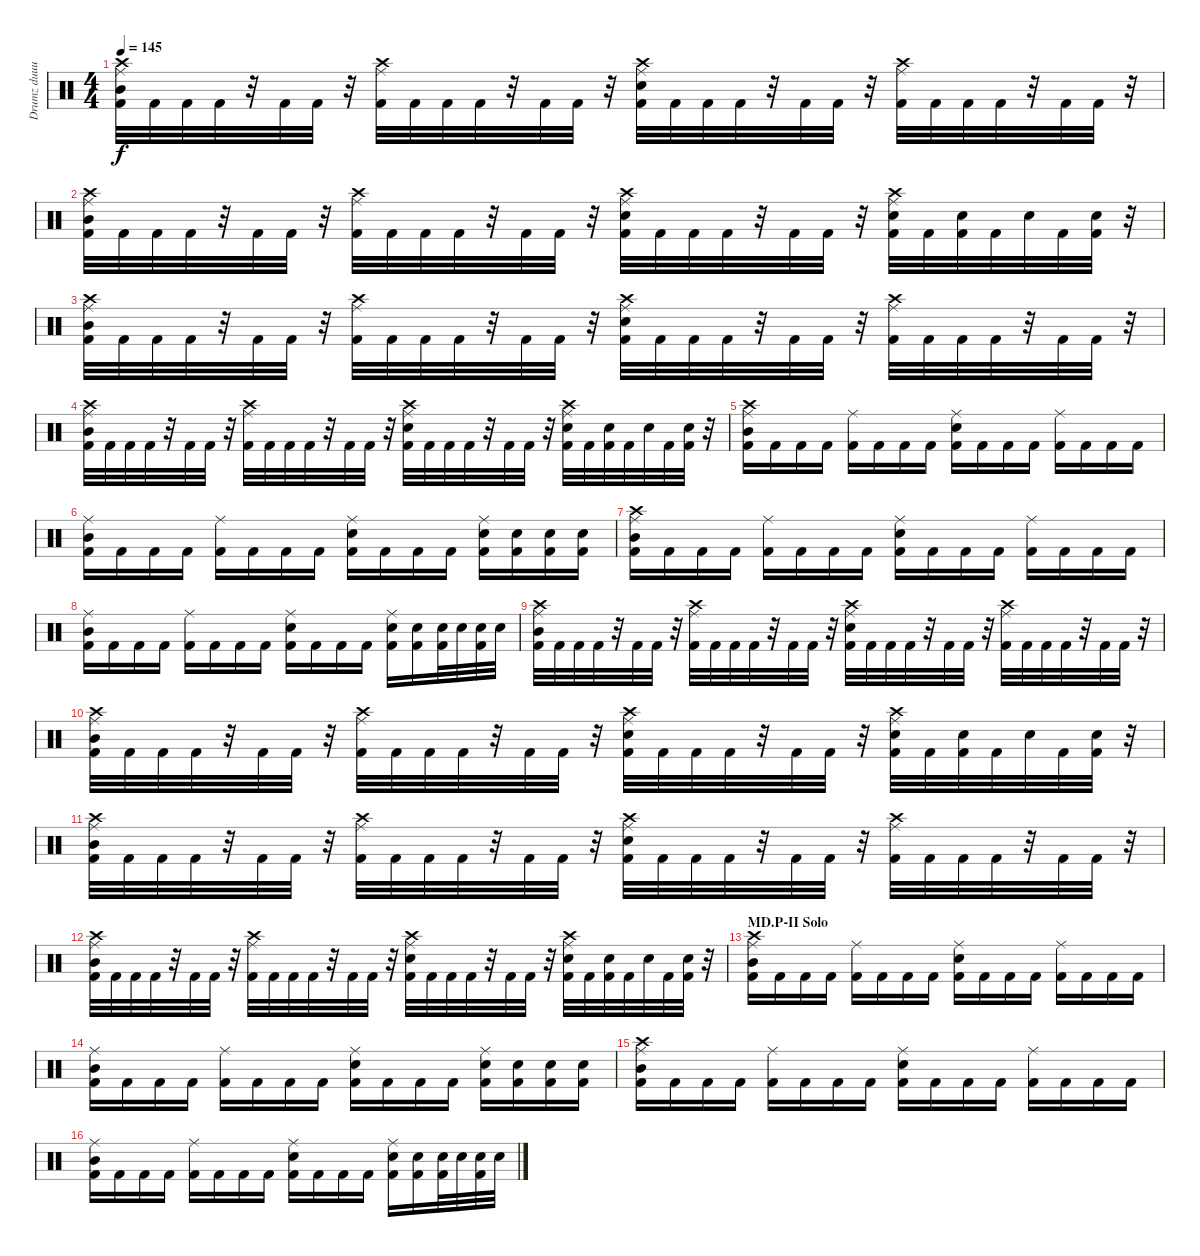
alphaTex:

\track ("Drumz duuuuude" "Drumz duuu") {instrument percussion}
\staff {score}
\articulation defaults
\ts (4 4)
\tempo 145
\clef neutral
\ks c
("Crash high (hit)" "Ride (middle)" "Kick (hit) 2" "Mid Tom (hit)").32{dy f} "Kick (hit) 2".32 "Kick (hit) 2".32 "Kick (hit) 2".32 r.32 "Kick (hit) 2".32 "Kick (hit) 2".32 r.32 ("Crash high (hit)" "Ride (middle)" "Kick (hit) 2").32 "Kick (hit) 2".32 "Kick (hit) 2".32 "Kick (hit) 2".32 r.32 "Kick (hit) 2".32 "Kick (hit) 2".32 r.32 ("Crash high (hit)" "Ride (middle)" "Kick (hit) 2" "Electric Snare (hit)").32 "Kick (hit) 2".32 "Kick (hit) 2".32 "Kick (hit) 2".32 r.32 "Kick (hit) 2".32 "Kick (hit) 2".32 r.32 ("Crash high (hit)" "Ride (middle)" "Kick (hit) 2").32 "Kick (hit) 2".32 "Kick (hit) 2".32 "Kick (hit) 2".32 r.32 "Kick (hit) 2".32 "Kick (hit) 2".32 r.32 |
("Crash high (hit)" "Ride (middle)" "Kick (hit) 2" "Mid Tom (hit)").32 "Kick (hit) 2".32 "Kick (hit) 2".32 "Kick (hit) 2".32 r.32 "Kick (hit) 2".32 "Kick (hit) 2".32 r.32 ("Crash high (hit)" "Ride (middle)" "Kick (hit) 2").32 "Kick (hit) 2".32 "Kick (hit) 2".32 "Kick (hit) 2".32 r.32 "Kick (hit) 2".32 "Kick (hit) 2".32 r.32 ("Crash high (hit)" "Ride (middle)" "Kick (hit) 2" "Electric Snare (hit)").32 "Kick (hit) 2".32 "Kick (hit) 2".32 "Kick (hit) 2".32 r.32 "Kick (hit) 2".32 "Kick (hit) 2".32 r.32 ("Crash high (hit)" "Ride (middle)" "Kick (hit) 2" "Electric Snare (hit)").32 "Kick (hit) 2".32 ("Kick (hit) 2" "Electric Snare (hit)").32 "Kick (hit) 2".32 "Electric Snare (hit)".32 "Kick (hit) 2".32 ("Kick (hit) 2" "Electric Snare (hit)").32 r.32 |
("Crash high (hit)" "Ride (middle)" "Kick (hit) 2" "Mid Tom (hit)").32 "Kick (hit) 2".32 "Kick (hit) 2".32 "Kick (hit) 2".32 r.32 "Kick (hit) 2".32 "Kick (hit) 2".32 r.32 ("Crash high (hit)" "Ride (middle)" "Kick (hit) 2").32 "Kick (hit) 2".32 "Kick (hit) 2".32 "Kick (hit) 2".32 r.32 "Kick (hit) 2".32 "Kick (hit) 2".32 r.32 ("Crash high (hit)" "Ride (middle)" "Kick (hit) 2" "Electric Snare (hit)").32 "Kick (hit) 2".32 "Kick (hit) 2".32 "Kick (hit) 2".32 r.32 "Kick (hit) 2".32 "Kick (hit) 2".32 r.32 ("Crash high (hit)" "Ride (middle)" "Kick (hit) 2").32 "Kick (hit) 2".32 "Kick (hit) 2".32 "Kick (hit) 2".32 r.32 "Kick (hit) 2".32 "Kick (hit) 2".32 r.32 |
("Crash high (hit)" "Ride (middle)" "Kick (hit) 2" "Mid Tom (hit)").32 "Kick (hit) 2".32 "Kick (hit) 2".32 "Kick (hit) 2".32 r.32 "Kick (hit) 2".32 "Kick (hit) 2".32 r.32 ("Crash high (hit)" "Ride (middle)" "Kick (hit) 2").32 "Kick (hit) 2".32 "Kick (hit) 2".32 "Kick (hit) 2".32 r.32 "Kick (hit) 2".32 "Kick (hit) 2".32 r.32 ("Crash high (hit)" "Ride (middle)" "Kick (hit) 2" "Electric Snare (hit)").32 "Kick (hit) 2".32 "Kick (hit) 2".32 "Kick (hit) 2".32 r.32 "Kick (hit) 2".32 "Kick (hit) 2".32 r.32 ("Crash high (hit)" "Ride (middle)" "Kick (hit) 2" "Electric Snare (hit)").32 "Kick (hit) 2".32 ("Kick (hit) 2" "Electric Snare (hit)").32 "Kick (hit) 2".32 "Electric Snare (hit)".32 "Kick (hit) 2".32 ("Kick (hit) 2" "Electric Snare (hit)").32 r.32 |
("Crash high (hit)" "Ride (middle)" "Kick (hit) 2" "Mid Tom (hit)").16 "Kick (hit) 2".16 "Kick (hit) 2".16 "Kick (hit) 2".16 ("Ride (middle)" "Kick (hit) 2").16 "Kick (hit) 2".16 "Kick (hit) 2".16 "Kick (hit) 2".16 ("Ride (middle)" "Kick (hit) 2" "Electric Snare (hit)").16 "Kick (hit) 2".16 "Kick (hit) 2".16 "Kick (hit) 2".16 ("Ride (middle)" "Kick (hit) 2").16 "Kick (hit) 2".16 "Kick (hit) 2".16 "Kick (hit) 2".16 |
("Ride (middle)" "Kick (hit) 2" "Mid Tom (hit)").16 "Kick (hit) 2".16 "Kick (hit) 2".16 "Kick (hit) 2".16 ("Ride (middle)" "Kick (hit) 2").16 "Kick (hit) 2".16 "Kick (hit) 2".16 "Kick (hit) 2".16 ("Ride (middle)" "Kick (hit) 2" "Electric Snare (hit)").16 "Kick (hit) 2".16 "Kick (hit) 2".16 "Kick (hit) 2".16 ("Ride (middle)" "Kick (hit) 2" "Electric Snare (hit)").16 ("Kick (hit) 2" "Electric Snare (hit)").16 ("Kick (hit) 2" "Electric Snare (hit)").16 ("Kick (hit) 2" "Electric Snare (hit)").16 |
("Crash high (hit)" "Ride (middle)" "Kick (hit) 2" "Mid Tom (hit)").16 "Kick (hit) 2".16 "Kick (hit) 2".16 "Kick (hit) 2".16 ("Ride (middle)" "Kick (hit) 2").16 "Kick (hit) 2".16 "Kick (hit) 2".16 "Kick (hit) 2".16 ("Ride (middle)" "Kick (hit) 2" "Electric Snare (hit)").16 "Kick (hit) 2".16 "Kick (hit) 2".16 "Kick (hit) 2".16 ("Ride (middle)" "Kick (hit) 2").16 "Kick (hit) 2".16 "Kick (hit) 2".16 "Kick (hit) 2".16 |
("Ride (middle)" "Kick (hit) 2" "Mid Tom (hit)").16 "Kick (hit) 2".16 "Kick (hit) 2".16 "Kick (hit) 2".16 ("Ride (middle)" "Kick (hit) 2").16 "Kick (hit) 2".16 "Kick (hit) 2".16 "Kick (hit) 2".16 ("Ride (middle)" "Kick (hit) 2" "Electric Snare (hit)").16 "Kick (hit) 2".16 "Kick (hit) 2".16 "Kick (hit) 2".16 ("Ride (middle)" "Kick (hit) 2" "Electric Snare (hit)").16 ("Kick (hit) 2" "Electric Snare (hit)").16 ("Kick (hit) 2" "Electric Snare (hit)").32 "Electric Snare (hit)".32 ("Kick (hit) 2" "Electric Snare (hit)").32 "Electric Snare (hit)".32 |
("Crash high (hit)" "Ride (middle)" "Kick (hit) 2" "Mid Tom (hit)").32 "Kick (hit) 2".32 "Kick (hit) 2".32 "Kick (hit) 2".32 r.32 "Kick (hit) 2".32 "Kick (hit) 2".32 r.32 ("Crash high (hit)" "Ride (middle)" "Kick (hit) 2").32 "Kick (hit) 2".32 "Kick (hit) 2".32 "Kick (hit) 2".32 r.32 "Kick (hit) 2".32 "Kick (hit) 2".32 r.32 ("Crash high (hit)" "Ride (middle)" "Kick (hit) 2" "Electric Snare (hit)").32 "Kick (hit) 2".32 "Kick (hit) 2".32 "Kick (hit) 2".32 r.32 "Kick (hit) 2".32 "Kick (hit) 2".32 r.32 ("Crash high (hit)" "Ride (middle)" "Kick (hit) 2").32 "Kick (hit) 2".32 "Kick (hit) 2".32 "Kick (hit) 2".32 r.32 "Kick (hit) 2".32 "Kick (hit) 2".32 r.32 |
("Crash high (hit)" "Ride (middle)" "Kick (hit) 2" "Mid Tom (hit)").32 "Kick (hit) 2".32 "Kick (hit) 2".32 "Kick (hit) 2".32 r.32 "Kick (hit) 2".32 "Kick (hit) 2".32 r.32 ("Crash high (hit)" "Ride (middle)" "Kick (hit) 2").32 "Kick (hit) 2".32 "Kick (hit) 2".32 "Kick (hit) 2".32 r.32 "Kick (hit) 2".32 "Kick (hit) 2".32 r.32 ("Crash high (hit)" "Ride (middle)" "Kick (hit) 2" "Electric Snare (hit)").32 "Kick (hit) 2".32 "Kick (hit) 2".32 "Kick (hit) 2".32 r.32 "Kick (hit) 2".32 "Kick (hit) 2".32 r.32 ("Crash high (hit)" "Ride (middle)" "Kick (hit) 2" "Electric Snare (hit)").32 "Kick (hit) 2".32 ("Kick (hit) 2" "Electric Snare (hit)").32 "Kick (hit) 2".32 "Electric Snare (hit)".32 "Kick (hit) 2".32 ("Kick (hit) 2" "Electric Snare (hit)").32 r.32 |
("Crash high (hit)" "Ride (middle)" "Kick (hit) 2" "Mid Tom (hit)").32 "Kick (hit) 2".32 "Kick (hit) 2".32 "Kick (hit) 2".32 r.32 "Kick (hit) 2".32 "Kick (hit) 2".32 r.32 ("Crash high (hit)" "Ride (middle)" "Kick (hit) 2").32 "Kick (hit) 2".32 "Kick (hit) 2".32 "Kick (hit) 2".32 r.32 "Kick (hit) 2".32 "Kick (hit) 2".32 r.32 ("Crash high (hit)" "Ride (middle)" "Kick (hit) 2" "Electric Snare (hit)").32 "Kick (hit) 2".32 "Kick (hit) 2".32 "Kick (hit) 2".32 r.32 "Kick (hit) 2".32 "Kick (hit) 2".32 r.32 ("Crash high (hit)" "Ride (middle)" "Kick (hit) 2").32 "Kick (hit) 2".32 "Kick (hit) 2".32 "Kick (hit) 2".32 r.32 "Kick (hit) 2".32 "Kick (hit) 2".32 r.32 |
("Crash high (hit)" "Ride (middle)" "Kick (hit) 2" "Mid Tom (hit)").32 "Kick (hit) 2".32 "Kick (hit) 2".32 "Kick (hit) 2".32 r.32 "Kick (hit) 2".32 "Kick (hit) 2".32 r.32 ("Crash high (hit)" "Ride (middle)" "Kick (hit) 2").32 "Kick (hit) 2".32 "Kick (hit) 2".32 "Kick (hit) 2".32 r.32 "Kick (hit) 2".32 "Kick (hit) 2".32 r.32 ("Crash high (hit)" "Ride (middle)" "Kick (hit) 2" "Electric Snare (hit)").32 "Kick (hit) 2".32 "Kick (hit) 2".32 "Kick (hit) 2".32 r.32 "Kick (hit) 2".32 "Kick (hit) 2".32 r.32 ("Crash high (hit)" "Ride (middle)" "Kick (hit) 2" "Electric Snare (hit)").32 "Kick (hit) 2".32 ("Kick (hit) 2" "Electric Snare (hit)").32 "Kick (hit) 2".32 "Electric Snare (hit)".32 "Kick (hit) 2".32 ("Kick (hit) 2" "Electric Snare (hit)").32 r.32 |
\section ("" "MD.P-II Solo")
("Crash high (hit)" "Ride (middle)" "Kick (hit) 2" "Mid Tom (hit)").16 "Kick (hit) 2".16 "Kick (hit) 2".16 "Kick (hit) 2".16 ("Ride (middle)" "Kick (hit) 2").16 "Kick (hit) 2".16 "Kick (hit) 2".16 "Kick (hit) 2".16 ("Ride (middle)" "Kick (hit) 2" "Electric Snare (hit)").16 "Kick (hit) 2".16 "Kick (hit) 2".16 "Kick (hit) 2".16 ("Ride (middle)" "Kick (hit) 2").16 "Kick (hit) 2".16 "Kick (hit) 2".16 "Kick (hit) 2".16 |
("Ride (middle)" "Kick (hit) 2" "Mid Tom (hit)").16 "Kick (hit) 2".16 "Kick (hit) 2".16 "Kick (hit) 2".16 ("Ride (middle)" "Kick (hit) 2").16 "Kick (hit) 2".16 "Kick (hit) 2".16 "Kick (hit) 2".16 ("Ride (middle)" "Kick (hit) 2" "Electric Snare (hit)").16 "Kick (hit) 2".16 "Kick (hit) 2".16 "Kick (hit) 2".16 ("Ride (middle)" "Kick (hit) 2" "Electric Snare (hit)").16 ("Kick (hit) 2" "Electric Snare (hit)").16 ("Kick (hit) 2" "Electric Snare (hit)").16 ("Kick (hit) 2" "Electric Snare (hit)").16 |
("Crash high (hit)" "Ride (middle)" "Kick (hit) 2" "Mid Tom (hit)").16 "Kick (hit) 2".16 "Kick (hit) 2".16 "Kick (hit) 2".16 ("Ride (middle)" "Kick (hit) 2").16 "Kick (hit) 2".16 "Kick (hit) 2".16 "Kick (hit) 2".16 ("Ride (middle)" "Kick (hit) 2" "Electric Snare (hit)").16 "Kick (hit) 2".16 "Kick (hit) 2".16 "Kick (hit) 2".16 ("Ride (middle)" "Kick (hit) 2").16 "Kick (hit) 2".16 "Kick (hit) 2".16 "Kick (hit) 2".16 |
("Ride (middle)" "Kick (hit) 2" "Mid Tom (hit)").16 "Kick (hit) 2".16 "Kick (hit) 2".16 "Kick (hit) 2".16 ("Ride (middle)" "Kick (hit) 2").16 "Kick (hit) 2".16 "Kick (hit) 2".16 "Kick (hit) 2".16 ("Ride (middle)" "Kick (hit) 2" "Electric Snare (hit)").16 "Kick (hit) 2".16 "Kick (hit) 2".16 "Kick (hit) 2".16 ("Ride (middle)" "Kick (hit) 2" "Electric Snare (hit)").16 ("Kick (hit) 2" "Electric Snare (hit)").16 ("Kick (hit) 2" "Electric Snare (hit)").32 "Electric Snare (hit)".32 ("Kick (hit) 2" "Electric Snare (hit)").32 "Electric Snare (hit)".32
